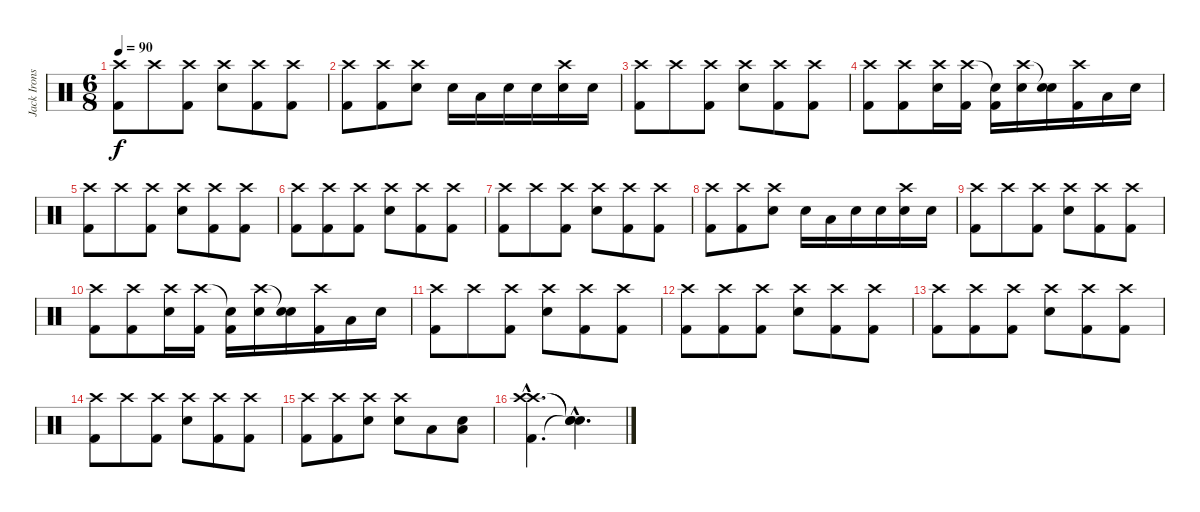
\track ("Jack Irons" "Jack Irons") {instrument percussion}
\staff {score}
\articulation defaults
\ts (6 8)
\tempo 90
\clef neutral
\ks c
("Crash high (hit)" "Kick (hit) 2").8{dy f} "Crash high (hit)".8 ("Crash high (hit)" "Kick (hit) 2").8 ("Crash high (hit)" "Snare (hit) 2").8 ("Crash high (hit)" "Kick (hit) 2").8 ("Crash high (hit)" "Kick (hit) 2").8 |
("Crash high (hit)" "Kick (hit) 2").8 ("Crash high (hit)" "Kick (hit) 2").8 ("Crash high (hit)" "Snare (hit) 2").8 "Snare (hit) 2".16 "Low Tom (hit)".16 "Snare (hit) 2".16 "Snare (hit) 2".16 ("Crash high (hit)" "Snare (hit) 2").16 "Snare (hit) 2".16 |
("Crash high (hit)" "Kick (hit) 2").8 "Crash high (hit)".8 ("Crash high (hit)" "Kick (hit) 2").8 ("Crash high (hit)" "Snare (hit) 2").8 ("Crash high (hit)" "Kick (hit) 2").8 ("Crash high (hit)" "Kick (hit) 2").8 |
("Crash high (hit)" "Kick (hit) 2").8 ("Crash high (hit)" "Kick (hit) 2").8 ("Crash high (hit)" "Snare (hit) 2").16 ("Crash high (hit)" "Kick (hit) 2").16 ("Snare (hit)"{t} "Kick (hit) 2").16 ("Crash high (hit)" "Snare (hit) 2").16 ("Snare (hit)"{t} "Snare (hit) 2").16 ("Crash high (hit)" "Kick (hit) 2").16 "Low Tom (hit)".16 "Snare (hit) 2".16 |
("Crash high (hit)" "Kick (hit) 2").8 "Crash high (hit)".8 ("Crash high (hit)" "Kick (hit) 2").8 ("Crash high (hit)" "Snare (hit) 2").8 ("Crash high (hit)" "Kick (hit) 2").8 ("Crash high (hit)" "Kick (hit) 2").8 |
("Crash high (hit)" "Kick (hit) 2").8 ("Crash high (hit)" "Kick (hit) 2").8 ("Crash high (hit)" "Kick (hit) 2").8 ("Crash high (hit)" "Snare (hit) 2").8 ("Crash high (hit)" "Kick (hit) 2").8 ("Crash high (hit)" "Kick (hit) 2").8 |
("Crash high (hit)" "Kick (hit) 2").8 "Crash high (hit)".8 ("Crash high (hit)" "Kick (hit) 2").8 ("Crash high (hit)" "Snare (hit) 2").8 ("Crash high (hit)" "Kick (hit) 2").8 ("Crash high (hit)" "Kick (hit) 2").8 |
("Crash high (hit)" "Kick (hit) 2").8 ("Crash high (hit)" "Kick (hit) 2").8 ("Crash high (hit)" "Snare (hit) 2").8 "Snare (hit) 2".16 "Low Tom (hit)".16 "Snare (hit) 2".16 "Snare (hit) 2".16 ("Crash high (hit)" "Snare (hit) 2").16 "Snare (hit) 2".16 |
("Crash high (hit)" "Kick (hit) 2").8 "Crash high (hit)".8 ("Crash high (hit)" "Kick (hit) 2").8 ("Crash high (hit)" "Snare (hit) 2").8 ("Crash high (hit)" "Kick (hit) 2").8 ("Crash high (hit)" "Kick (hit) 2").8 |
("Crash high (hit)" "Kick (hit) 2").8 ("Crash high (hit)" "Kick (hit) 2").8 ("Crash high (hit)" "Snare (hit) 2").16 ("Crash high (hit)" "Kick (hit) 2").16 ("Snare (hit)"{t} "Kick (hit) 2").16 ("Crash high (hit)" "Snare (hit) 2").16 ("Snare (hit)"{t} "Snare (hit) 2").16 ("Crash high (hit)" "Kick (hit) 2").16 "Low Tom (hit)".16 "Snare (hit) 2".16 |
("Crash high (hit)" "Kick (hit) 2").8 "Crash high (hit)".8 ("Crash high (hit)" "Kick (hit) 2").8 ("Crash high (hit)" "Snare (hit) 2").8 ("Crash high (hit)" "Kick (hit) 2").8 ("Crash high (hit)" "Kick (hit) 2").8 |
("Crash high (hit)" "Kick (hit) 2").8 ("Crash high (hit)" "Kick (hit) 2").8 ("Crash high (hit)" "Kick (hit) 2").8 ("Crash high (hit)" "Snare (hit) 2").8 ("Crash high (hit)" "Kick (hit) 2").8 ("Crash high (hit)" "Kick (hit) 2").8 |
("Crash high (hit)" "Kick (hit) 2").8 ("Crash high (hit)" "Kick (hit) 2").8 ("Crash high (hit)" "Kick (hit) 2").8 ("Crash high (hit)" "Snare (hit) 2").8 ("Crash high (hit)" "Kick (hit) 2").8 ("Crash high (hit)" "Kick (hit) 2").8 |
("Crash high (hit)" "Kick (hit) 2").8 "Crash high (hit)".8 ("Crash high (hit)" "Kick (hit) 2").8 ("Crash high (hit)" "Snare (hit) 2").8 ("Crash high (hit)" "Kick (hit) 2").8 ("Crash high (hit)" "Kick (hit) 2").8 |
("Crash high (hit)" "Kick (hit) 2").8 ("Crash high (hit)" "Kick (hit) 2").8 ("Crash high (hit)" "Snare (hit) 2").8 ("Crash high (hit)" "Snare (hit) 2").8 "Low Tom (hit)".8 ("Low Tom (hit)" "Snare (hit) 2").8 |
("Crash high (hit)"{hac} "Crash high (hit)"{hac} "Kick (hit) 2"{hac}).4{d} ("Snare (hit)"{hac t} "Snare (hit)"{hac t} "Snare (hit)"{hac t}).4{d}
